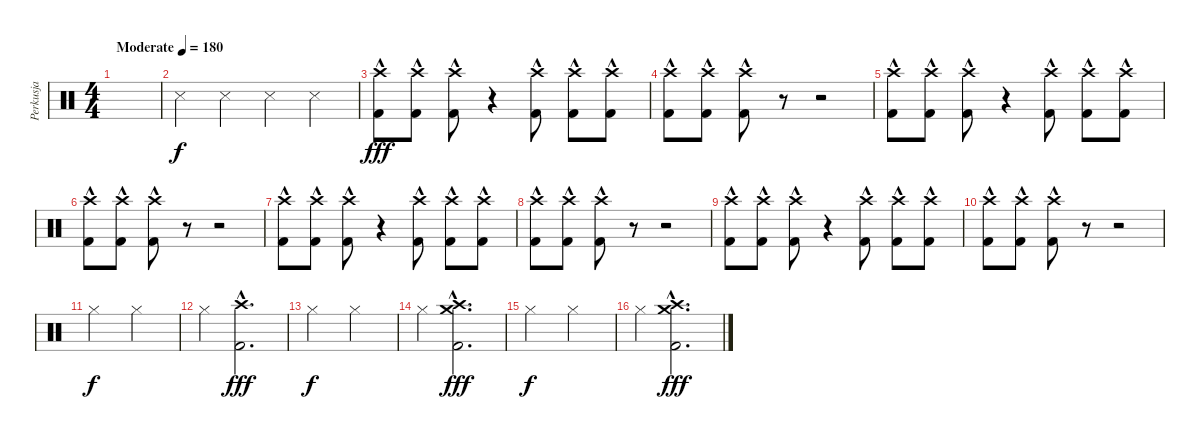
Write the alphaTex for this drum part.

\track ("Perkusja" "Perkusja") {instrument percussion}
\staff {score}
\articulation defaults
\ts (4 4)
\tempo (180 "Moderate")
\clef neutral
\ks c
|
"Snare (side stick) 3".4 "Snare (side stick) 3".4 "Snare (side stick) 3".4 "Snare (side stick) 3".4 |
("Crash high (hit)" "Kick (hit) 2"{hac}).8{dy fff} ("Crash high (hit)" "Kick (hit) 2"{hac}).8 ("Crash high (hit)" "Kick (hit) 2"{hac}).8 r.4 ("Crash high (hit)" "Kick (hit) 2"{hac}).8 ("Crash high (hit)" "Kick (hit) 2"{hac}).8 ("Crash high (hit)" "Kick (hit) 2"{hac}).8 |
("Crash high (hit)" "Kick (hit) 2"{hac}).8 ("Crash high (hit)" "Kick (hit) 2"{hac}).8 ("Crash high (hit)" "Kick (hit) 2"{hac}).8 r.8 r.2 |
("Crash high (hit)" "Kick (hit) 2"{hac}).8 ("Crash high (hit)" "Kick (hit) 2"{hac}).8 ("Crash high (hit)" "Kick (hit) 2"{hac}).8 r.4 ("Crash high (hit)" "Kick (hit) 2"{hac}).8 ("Crash high (hit)" "Kick (hit) 2"{hac}).8 ("Crash high (hit)" "Kick (hit) 2"{hac}).8 |
("Crash high (hit)" "Kick (hit) 2"{hac}).8 ("Crash high (hit)" "Kick (hit) 2"{hac}).8 ("Crash high (hit)" "Kick (hit) 2"{hac}).8 r.8 r.2 |
("Crash high (hit)" "Kick (hit) 2"{hac}).8 ("Crash high (hit)" "Kick (hit) 2"{hac}).8 ("Crash high (hit)" "Kick (hit) 2"{hac}).8 r.4 ("Crash high (hit)" "Kick (hit) 2"{hac}).8 ("Crash high (hit)" "Kick (hit) 2"{hac}).8 ("Crash high (hit)" "Kick (hit) 2"{hac}).8 |
("Crash high (hit)" "Kick (hit) 2"{hac}).8 ("Crash high (hit)" "Kick (hit) 2"{hac}).8 ("Crash high (hit)" "Kick (hit) 2"{hac}).8 r.8 r.2 |
("Crash high (hit)" "Kick (hit) 2"{hac}).8 ("Crash high (hit)" "Kick (hit) 2"{hac}).8 ("Crash high (hit)" "Kick (hit) 2"{hac}).8 r.4 ("Crash high (hit)" "Kick (hit) 2"{hac}).8 ("Crash high (hit)" "Kick (hit) 2"{hac}).8 ("Crash high (hit)" "Kick (hit) 2"{hac}).8 |
("Crash high (hit)" "Kick (hit) 2"{hac}).8 ("Crash high (hit)" "Kick (hit) 2"{hac}).8 ("Crash high (hit)" "Kick (hit) 2"{hac}).8 r.8 r.2 |
"Hi-Hat (closed)".2{dy f} "Hi-Hat (closed)".2 |
"Hi-Hat (closed)".4 ("Crash high (hit)" "Kick (hit) 2"{hac}).2{d dy fff} |
"Hi-Hat (closed)".2{dy f} "Hi-Hat (closed)".2 |
"Hi-Hat (closed)".4 ("Crash high (hit)" "Crash medium (hit)" "Kick (hit) 2"{hac}).2{d dy fff} |
"Hi-Hat (closed)".2{dy f} "Hi-Hat (closed)".2 |
"Hi-Hat (closed)".4 ("Crash high (hit)"{hac} "Crash medium (hit)" "Kick (hit) 2"{hac}).2{d dy fff}
